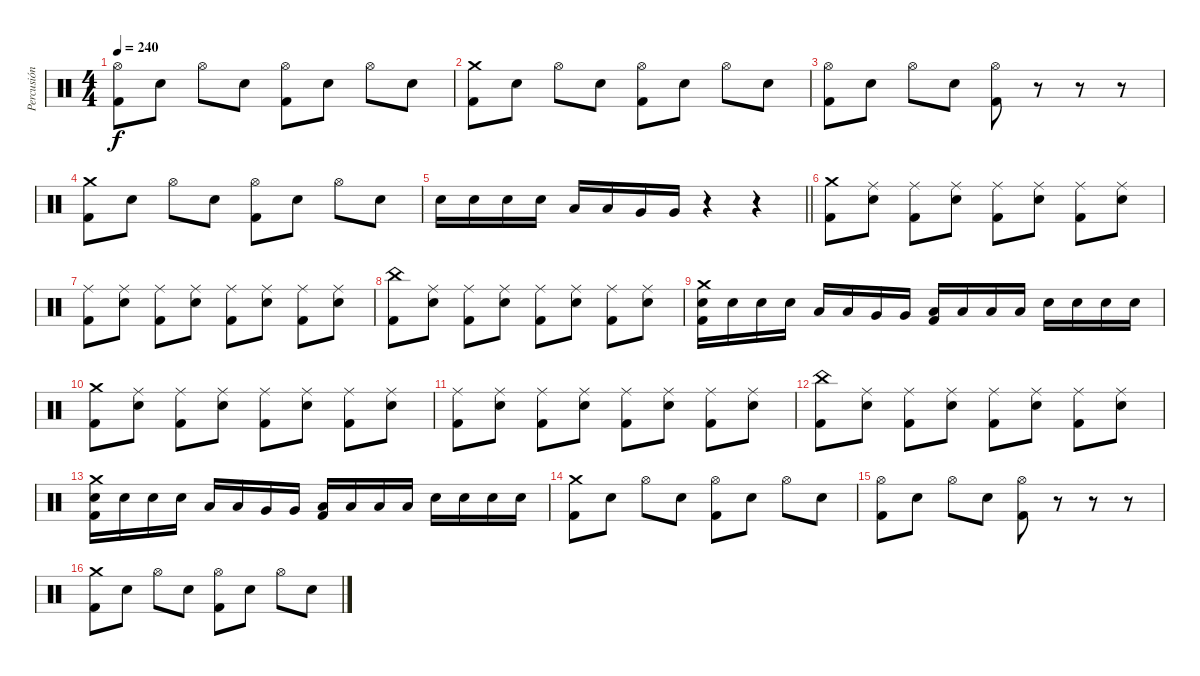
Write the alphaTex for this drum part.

\track ("Percusión" "Percusión") {instrument percussion}
\staff {score}
\articulation defaults
\ts (4 4)
\tempo 240
\clef neutral
\ks c
("Hi-Hat (open)" "Kick (hit) 2").8{dy f} "Electric Snare (hit)".8 "Hi-Hat (open)".8 "Electric Snare (hit)".8 ("Hi-Hat (open)" "Kick (hit) 2").8 "Electric Snare (hit)".8 "Hi-Hat (open)".8 "Electric Snare (hit)".8 |
("Crash medium (hit)" "Kick (hit) 2").8 "Electric Snare (hit)".8 "Hi-Hat (open)".8 "Electric Snare (hit)".8 ("Hi-Hat (open)" "Kick (hit) 2").8 "Electric Snare (hit)".8 "Hi-Hat (open)".8 "Electric Snare (hit)".8 |
("Hi-Hat (open)" "Kick (hit) 2").8 "Electric Snare (hit)".8 "Hi-Hat (open)".8 "Electric Snare (hit)".8 ("Hi-Hat (open)" "Kick (hit) 2").8 r.8 r.8 r.8 |
("Crash medium (hit)" "Kick (hit) 2").8 "Electric Snare (hit)".8 "Hi-Hat (open)".8 "Electric Snare (hit)".8 ("Hi-Hat (open)" "Kick (hit) 2").8 "Electric Snare (hit)".8 "Hi-Hat (open)".8 "Electric Snare (hit)".8 |
\barLineRight lightlight "Electric Snare (hit)".16 "Electric Snare (hit)".16 "Electric Snare (hit)".16 "Electric Snare (hit)".16 "Low Tom (hit)".16 "Low Tom (hit)".16 "Very Low Tom (hit)".16 "Very Low Tom (hit)".16
r.4 r.4 |
("Crash medium (hit)" "Kick (hit) 2").8 ("Ride (middle)" "Electric Snare (hit)").8 ("Ride (middle)" "Kick (hit) 2").8 ("Ride (middle)" "Electric Snare (hit)").8 ("Ride (middle)" "Kick (hit) 2").8 ("Ride (middle)" "Electric Snare (hit)").8 ("Ride (middle)" "Kick (hit) 2").8 ("Ride (middle)" "Electric Snare (hit)").8 |
("Ride (middle)" "Kick (hit) 2").8 ("Ride (middle)" "Electric Snare (hit)").8 ("Ride (middle)" "Kick (hit) 2").8 ("Ride (middle)" "Electric Snare (hit)").8 ("Ride (middle)" "Kick (hit) 2").8 ("Ride (middle)" "Electric Snare (hit)").8 ("Ride (middle)" "Kick (hit) 2").8 ("Ride (middle)" "Electric Snare (hit)").8 |
("China (hit)" "Kick (hit) 2").8 ("Ride (middle)" "Electric Snare (hit)").8 ("Ride (middle)" "Kick (hit) 2").8 ("Ride (middle)" "Electric Snare (hit)").8 ("Ride (middle)" "Kick (hit) 2").8 ("Ride (middle)" "Electric Snare (hit)").8 ("Ride (middle)" "Kick (hit) 2").8 ("Ride (middle)" "Electric Snare (hit)").8 |
("Crash medium (hit)" "Electric Snare (hit)" "Kick (hit) 2").16 "Electric Snare (hit)".16 "Electric Snare (hit)".16 "Electric Snare (hit)".16 "Low Tom (hit)".16 "Low Tom (hit)".16 "Very Low Tom (hit)".16 "Very Low Tom (hit)".16 ("Low Tom (hit)" "Kick (hit) 2").16 "Low Tom (hit)".16 "Low Tom (hit)".16 "Low Tom (hit)".16 "Electric Snare (hit)".16 "Electric Snare (hit)".16 "Electric Snare (hit)".16 "Electric Snare (hit)".16 |
("Crash medium (hit)" "Kick (hit) 2").8 ("Ride (middle)" "Electric Snare (hit)").8 ("Ride (middle)" "Kick (hit) 2").8 ("Ride (middle)" "Electric Snare (hit)").8 ("Ride (middle)" "Kick (hit) 2").8 ("Ride (middle)" "Electric Snare (hit)").8 ("Ride (middle)" "Kick (hit) 2").8 ("Ride (middle)" "Electric Snare (hit)").8 |
("Ride (middle)" "Kick (hit) 2").8 ("Ride (middle)" "Electric Snare (hit)").8 ("Ride (middle)" "Kick (hit) 2").8 ("Ride (middle)" "Electric Snare (hit)").8 ("Ride (middle)" "Kick (hit) 2").8 ("Ride (middle)" "Electric Snare (hit)").8 ("Ride (middle)" "Kick (hit) 2").8 ("Ride (middle)" "Electric Snare (hit)").8 |
("China (hit)" "Kick (hit) 2").8 ("Ride (middle)" "Electric Snare (hit)").8 ("Ride (middle)" "Kick (hit) 2").8 ("Ride (middle)" "Electric Snare (hit)").8 ("Ride (middle)" "Kick (hit) 2").8 ("Ride (middle)" "Electric Snare (hit)").8 ("Ride (middle)" "Kick (hit) 2").8 ("Ride (middle)" "Electric Snare (hit)").8 |
("Crash medium (hit)" "Electric Snare (hit)" "Kick (hit) 2").16 "Electric Snare (hit)".16 "Electric Snare (hit)".16 "Electric Snare (hit)".16 "Low Tom (hit)".16 "Low Tom (hit)".16 "Very Low Tom (hit)".16 "Very Low Tom (hit)".16 ("Low Tom (hit)" "Kick (hit) 2").16 "Low Tom (hit)".16 "Low Tom (hit)".16 "Low Tom (hit)".16 "Electric Snare (hit)".16 "Electric Snare (hit)".16 "Electric Snare (hit)".16 "Electric Snare (hit)".16 |
("Crash medium (hit)" "Kick (hit) 2").8 "Electric Snare (hit)".8 "Hi-Hat (open)".8 "Electric Snare (hit)".8 ("Hi-Hat (open)" "Kick (hit) 2").8 "Electric Snare (hit)".8 "Hi-Hat (open)".8 "Electric Snare (hit)".8 |
("Hi-Hat (open)" "Kick (hit) 2").8 "Electric Snare (hit)".8 "Hi-Hat (open)".8 "Electric Snare (hit)".8 ("Hi-Hat (open)" "Kick (hit) 2").8 r.8 r.8 r.8 |
("Crash medium (hit)" "Kick (hit) 2").8 "Electric Snare (hit)".8 "Hi-Hat (open)".8 "Electric Snare (hit)".8 ("Hi-Hat (open)" "Kick (hit) 2").8 "Electric Snare (hit)".8 "Hi-Hat (open)".8 "Electric Snare (hit)".8
